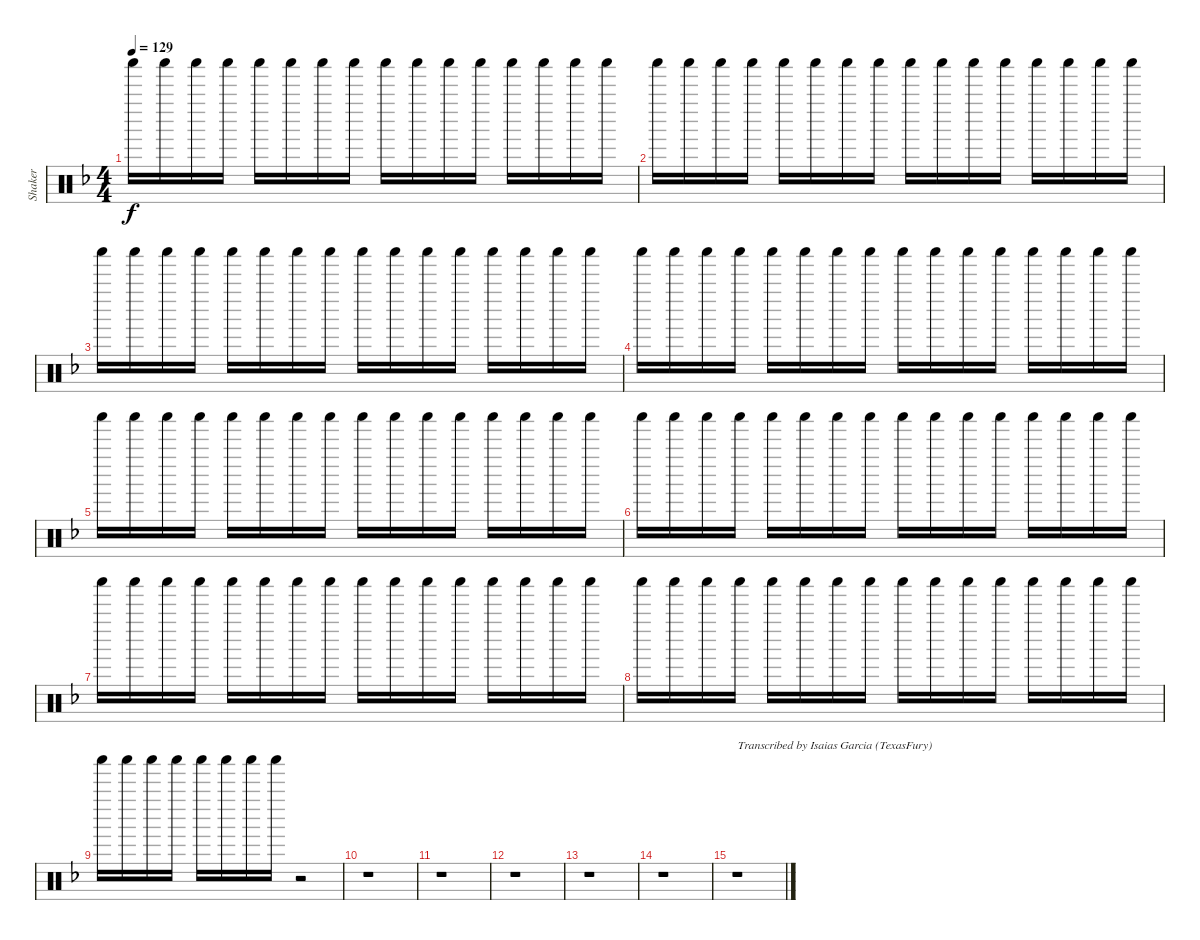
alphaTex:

\track ("Shaker" "Shaker") {instrument percussion}
\staff {score}
\articulation defaults
\ts (4 4)
\tempo 129
\clef neutral
\ks dminor "Shaker (hit)".16{dy f} "Shaker (hit)".16 "Shaker (hit)".16 "Shaker (hit)".16 "Shaker (hit)".16 "Shaker (hit)".16 "Shaker (hit)".16 "Shaker (hit)".16 "Shaker (hit)".16 "Shaker (hit)".16 "Shaker (hit)".16 "Shaker (hit)".16 "Shaker (hit)".16 "Shaker (hit)".16 "Shaker (hit)".16 "Shaker (hit)".16
|
"Shaker (hit)".16 "Shaker (hit)".16 "Shaker (hit)".16 "Shaker (hit)".16 "Shaker (hit)".16 "Shaker (hit)".16 "Shaker (hit)".16 "Shaker (hit)".16 "Shaker (hit)".16 "Shaker (hit)".16 "Shaker (hit)".16 "Shaker (hit)".16 "Shaker (hit)".16 "Shaker (hit)".16 "Shaker (hit)".16 "Shaker (hit)".16 |
"Shaker (hit)".16 "Shaker (hit)".16 "Shaker (hit)".16 "Shaker (hit)".16 "Shaker (hit)".16 "Shaker (hit)".16 "Shaker (hit)".16 "Shaker (hit)".16 "Shaker (hit)".16 "Shaker (hit)".16 "Shaker (hit)".16 "Shaker (hit)".16 "Shaker (hit)".16 "Shaker (hit)".16 "Shaker (hit)".16 "Shaker (hit)".16 |
"Shaker (hit)".16 "Shaker (hit)".16 "Shaker (hit)".16 "Shaker (hit)".16 "Shaker (hit)".16 "Shaker (hit)".16 "Shaker (hit)".16 "Shaker (hit)".16 "Shaker (hit)".16 "Shaker (hit)".16 "Shaker (hit)".16 "Shaker (hit)".16 "Shaker (hit)".16 "Shaker (hit)".16 "Shaker (hit)".16 "Shaker (hit)".16 |
"Shaker (hit)".16 "Shaker (hit)".16 "Shaker (hit)".16 "Shaker (hit)".16 "Shaker (hit)".16 "Shaker (hit)".16 "Shaker (hit)".16 "Shaker (hit)".16 "Shaker (hit)".16 "Shaker (hit)".16 "Shaker (hit)".16 "Shaker (hit)".16 "Shaker (hit)".16 "Shaker (hit)".16 "Shaker (hit)".16 "Shaker (hit)".16 |
"Shaker (hit)".16 "Shaker (hit)".16 "Shaker (hit)".16 "Shaker (hit)".16 "Shaker (hit)".16 "Shaker (hit)".16 "Shaker (hit)".16 "Shaker (hit)".16 "Shaker (hit)".16 "Shaker (hit)".16 "Shaker (hit)".16 "Shaker (hit)".16 "Shaker (hit)".16 "Shaker (hit)".16 "Shaker (hit)".16 "Shaker (hit)".16 |
"Shaker (hit)".16 "Shaker (hit)".16 "Shaker (hit)".16 "Shaker (hit)".16 "Shaker (hit)".16 "Shaker (hit)".16 "Shaker (hit)".16 "Shaker (hit)".16 "Shaker (hit)".16 "Shaker (hit)".16 "Shaker (hit)".16 "Shaker (hit)".16 "Shaker (hit)".16 "Shaker (hit)".16 "Shaker (hit)".16 "Shaker (hit)".16 |
"Shaker (hit)".16 "Shaker (hit)".16 "Shaker (hit)".16 "Shaker (hit)".16 "Shaker (hit)".16 "Shaker (hit)".16 "Shaker (hit)".16 "Shaker (hit)".16 "Shaker (hit)".16 "Shaker (hit)".16 "Shaker (hit)".16 "Shaker (hit)".16 "Shaker (hit)".16 "Shaker (hit)".16 "Shaker (hit)".16 "Shaker (hit)".16 |
"Shaker (hit)".16 "Shaker (hit)".16 "Shaker (hit)".16 "Shaker (hit)".16 "Shaker (hit)".16 "Shaker (hit)".16 "Shaker (hit)".16 "Shaker (hit)".16 r.2 |
r.1 |
r.1 |
r.1 |
r.1 |
r.1 |
r.1{txt "Transcribed by Isaias Garcia (TexasFury)"}
